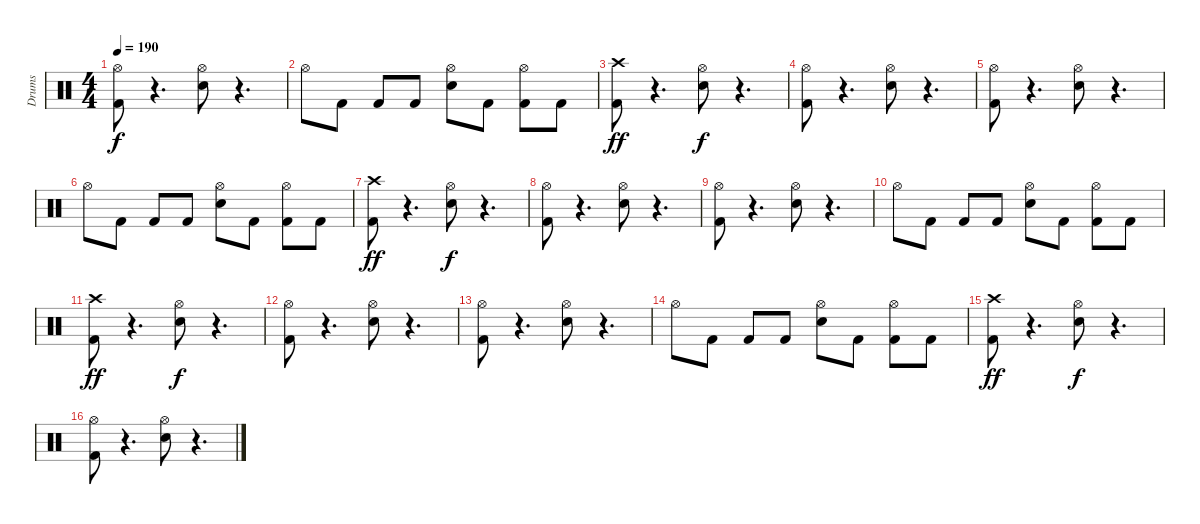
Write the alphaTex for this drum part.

\track ("Drums" "Drums") {instrument percussion}
\staff {score}
\articulation defaults
\ts (4 4)
\tempo 190
\clef neutral
\ks c
("Kick (hit) 2" "Hi-Hat (open)").8{dy f} r.4{d} ("Snare (hit) 2" "Hi-Hat (open)").8 r.4{d} |
"Hi-Hat (open)".8 "Kick (hit) 2".8 "Kick (hit) 2".8 "Kick (hit) 2".8 ("Snare (hit) 2" "Hi-Hat (open)").8 "Kick (hit) 2".8 ("Kick (hit) 2" "Hi-Hat (open)").8 "Kick (hit) 2".8 |
("Kick (hit) 2" "Crash high (hit)").8{dy ff} r.4{d} ("Snare (hit) 2" "Hi-Hat (open)").8{dy f} r.4{d} |
("Kick (hit) 2" "Hi-Hat (open)").8 r.4{d} ("Snare (hit) 2" "Hi-Hat (open)").8 r.4{d} |
("Kick (hit) 2" "Hi-Hat (open)").8 r.4{d} ("Snare (hit) 2" "Hi-Hat (open)").8 r.4{d} |
"Hi-Hat (open)".8 "Kick (hit) 2".8 "Kick (hit) 2".8 "Kick (hit) 2".8 ("Snare (hit) 2" "Hi-Hat (open)").8 "Kick (hit) 2".8 ("Kick (hit) 2" "Hi-Hat (open)").8 "Kick (hit) 2".8 |
("Kick (hit) 2" "Crash high (hit)").8{dy ff} r.4{d} ("Snare (hit) 2" "Hi-Hat (open)").8{dy f} r.4{d} |
("Kick (hit) 2" "Hi-Hat (open)").8 r.4{d} ("Snare (hit) 2" "Hi-Hat (open)").8 r.4{d} |
("Kick (hit) 2" "Hi-Hat (open)").8 r.4{d} ("Snare (hit) 2" "Hi-Hat (open)").8 r.4{d} |
"Hi-Hat (open)".8 "Kick (hit) 2".8 "Kick (hit) 2".8 "Kick (hit) 2".8 ("Snare (hit) 2" "Hi-Hat (open)").8 "Kick (hit) 2".8 ("Kick (hit) 2" "Hi-Hat (open)").8 "Kick (hit) 2".8 |
("Kick (hit) 2" "Crash high (hit)").8{dy ff} r.4{d} ("Snare (hit) 2" "Hi-Hat (open)").8{dy f} r.4{d} |
("Kick (hit) 2" "Hi-Hat (open)").8 r.4{d} ("Snare (hit) 2" "Hi-Hat (open)").8 r.4{d} |
("Kick (hit) 2" "Hi-Hat (open)").8 r.4{d} ("Snare (hit) 2" "Hi-Hat (open)").8 r.4{d} |
"Hi-Hat (open)".8 "Kick (hit) 2".8 "Kick (hit) 2".8 "Kick (hit) 2".8 ("Snare (hit) 2" "Hi-Hat (open)").8 "Kick (hit) 2".8 ("Kick (hit) 2" "Hi-Hat (open)").8 "Kick (hit) 2".8 |
("Kick (hit) 2" "Crash high (hit)").8{dy ff} r.4{d} ("Snare (hit) 2" "Hi-Hat (open)").8{dy f} r.4{d} |
("Kick (hit) 2" "Hi-Hat (open)").8 r.4{d} ("Snare (hit) 2" "Hi-Hat (open)").8 r.4{d}
